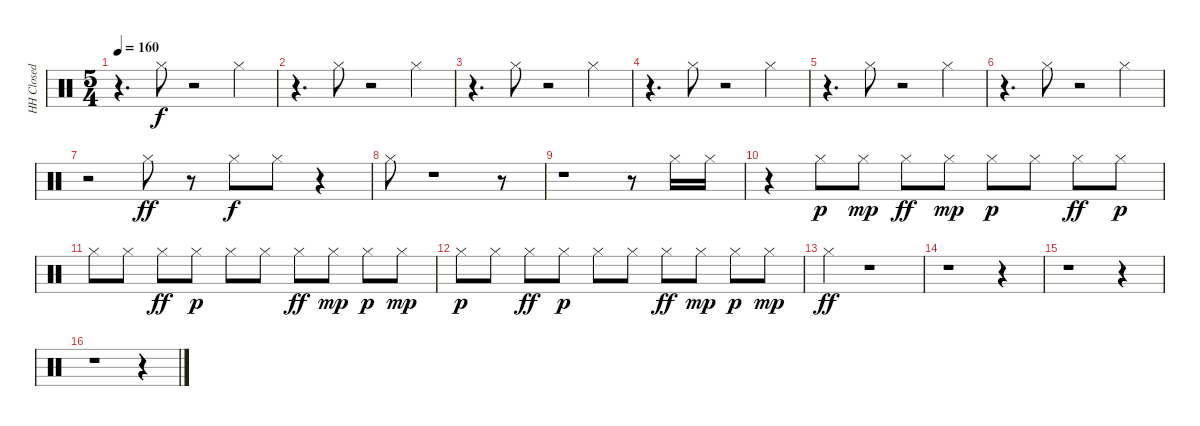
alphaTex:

\track ("HH Closed" "HH Closed") {instrument percussion}
\staff {score}
\articulation defaults
\ts (5 4)
\tempo 160
\clef neutral
\ks c
r.4{d dy f} "Hi-Hat (closed)".8 r.2 "Hi-Hat (closed)".4 |
r.4{d} "Hi-Hat (closed)".8 r.2 "Hi-Hat (closed)".4 |
r.4{d} "Hi-Hat (closed)".8 r.2 "Hi-Hat (closed)".4 |
r.4{d} "Hi-Hat (closed)".8 r.2 "Hi-Hat (closed)".4 |
r.4{d} "Hi-Hat (closed)".8 r.2 "Hi-Hat (closed)".4 |
r.4{d} "Hi-Hat (closed)".8 r.2 "Hi-Hat (closed)".4 |
r.2 "Hi-Hat (closed)".8{dy ff} r.8 "Hi-Hat (closed)".8{dy f} "Hi-Hat (closed)".8 r.4 |
"Hi-Hat (closed)".8 r.1 r.8 |
r.1 r.8 "Hi-Hat (closed)".16 "Hi-Hat (closed)".16 |
r.4 "Hi-Hat (closed)".8{dy p} "Hi-Hat (closed)".8{dy mp} "Hi-Hat (closed)".8{dy ff} "Hi-Hat (closed)".8{dy mp} "Hi-Hat (closed)".8{dy p} "Hi-Hat (closed)".8 "Hi-Hat (closed)".8{dy ff} "Hi-Hat (closed)".8{dy p} |
"Hi-Hat (closed)".8 "Hi-Hat (closed)".8 "Hi-Hat (closed)".8{dy ff} "Hi-Hat (closed)".8{dy p} "Hi-Hat (closed)".8 "Hi-Hat (closed)".8 "Hi-Hat (closed)".8{dy ff} "Hi-Hat (closed)".8{dy mp} "Hi-Hat (closed)".8{dy p} "Hi-Hat (closed)".8{dy mp} |
"Hi-Hat (closed)".8{dy p} "Hi-Hat (closed)".8 "Hi-Hat (closed)".8{dy ff} "Hi-Hat (closed)".8{dy p} "Hi-Hat (closed)".8 "Hi-Hat (closed)".8 "Hi-Hat (closed)".8{dy ff} "Hi-Hat (closed)".8{dy mp} "Hi-Hat (closed)".8{dy p} "Hi-Hat (closed)".8{dy mp} |
"Hi-Hat (closed)".4{dy ff} r.1 |
r.1 r.4 |
r.1 r.4 |
r.1 r.4
